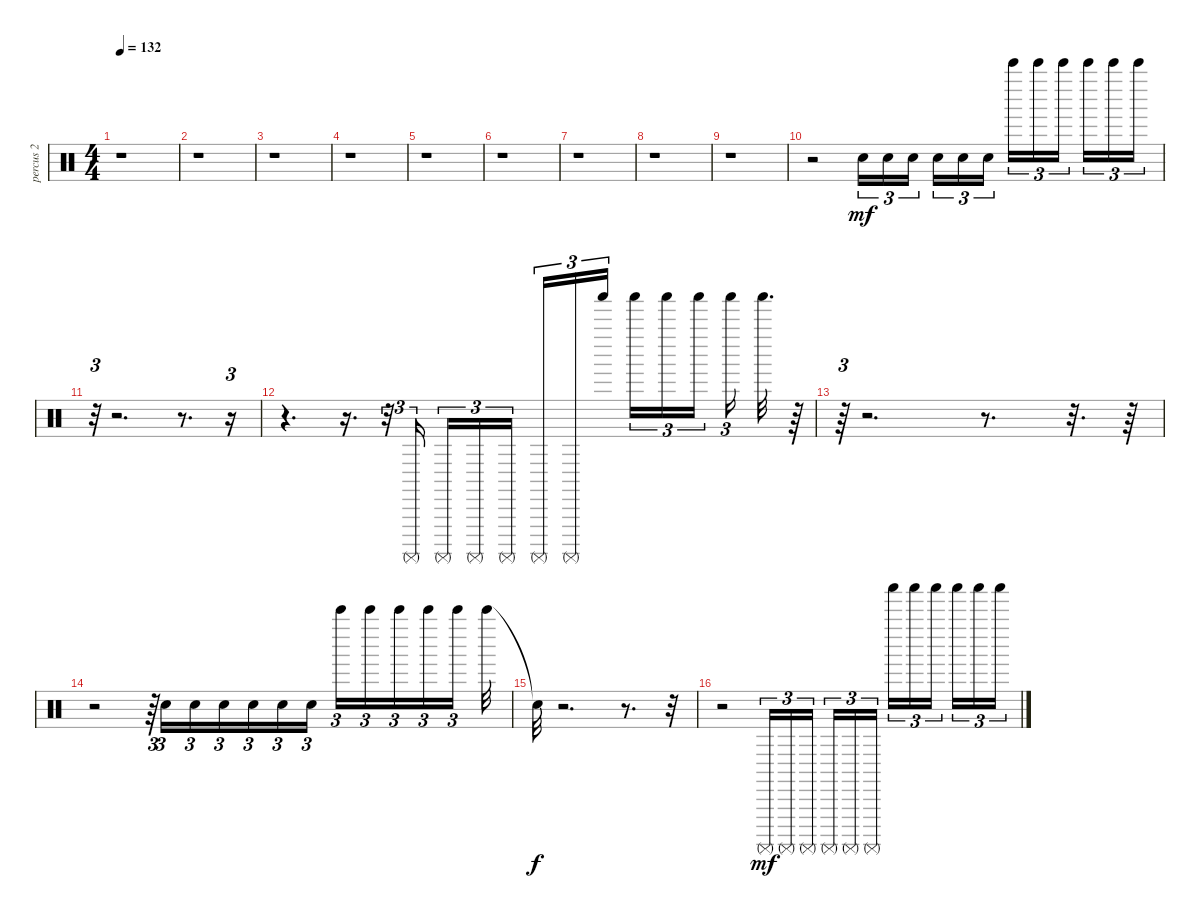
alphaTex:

\track ("percus 2" "percus 2") {instrument percussion}
\staff {score}
\articulation defaults
\ts (4 4)
\tempo 132
\clef neutral
\ks c
r.1{dy mf} |
r.1 |
r.1 |
r.1 |
r.1 |
r.1 |
r.1 |
r.1 |
r.1 |
r.2 "Snare (hit)".16{tu (3 2)} "Snare (hit)".16{tu (3 2)} "Snare (hit)".16{tu (3 2)} "Snare (hit)".16{tu (3 2)} "Snare (hit)".16{tu (3 2)} "Snare (hit)".16{tu (3 2)} "Bell Tree (hit)".16{tu (3 2)} "Bell Tree (hit)".16{tu (3 2)} "Bell Tree (hit)".16{tu (3 2)} "Bell Tree (hit)".16{tu (3 2)} "Bell Tree (hit)".16{tu (3 2)} "Bell Tree (hit)".16{tu (3 2)} |
r.32{tu (3 2)} r.2{d} r.8{d} r.16{tu (3 2)} |
r.4{d} r.16{d} r.32{tu (3 2)} "Surdo (mute)".16{tu (3 2)} "Surdo (mute)".16{tu (3 2)} "Surdo (mute)".16{tu (3 2)} "Surdo (mute)".16{tu (3 2)} "Surdo (mute)".16{tu (3 2)} "Surdo (mute)".16{tu (3 2)} "Shaker (hit)".16{tu (3 2)} "Shaker (hit)".16{tu (3 2)} "Shaker (hit)".16{tu (3 2)} "Shaker (hit)".16{tu (3 2)} "Shaker (hit)".16{tu (3 2)} "Shaker (hit)".32{d} r.64 |
r.64{tu (3 2)} r.2{d} r.8{d} r.32{d} r.64 |
r.2 r.64{tu (3 2)} "Snare (hit)".16{tu (3 2)} "Snare (hit)".16{tu (3 2)} "Snare (hit)".16{tu (3 2)} "Snare (hit)".16{tu (3 2)} "Snare (hit)".16{tu (3 2)} "Snare (hit)".16{tu (3 2)} "Bell Tree (hit)".16{tu (3 2)} "Bell Tree (hit)".16{tu (3 2)} "Bell Tree (hit)".16{tu (3 2)} "Bell Tree (hit)".16{tu (3 2)} "Bell Tree (hit)".16{tu (3 2)} "Bell Tree (hit)".32 |
"Snare (hit)"{t}.32{dy f} r.2{d} r.8{d} r.32 |
r.2 "Surdo (mute)".16{tu (3 2) dy mf} "Surdo (mute)".16{tu (3 2)} "Surdo (mute)".16{tu (3 2)} "Surdo (mute)".16{tu (3 2)} "Surdo (mute)".16{tu (3 2)} "Surdo (mute)".16{tu (3 2)} "Shaker (hit)".16{tu (3 2)} "Shaker (hit)".16{tu (3 2)} "Shaker (hit)".16{tu (3 2)} "Shaker (hit)".16{tu (3 2)} "Shaker (hit)".16{tu (3 2)} "Shaker (hit)".16{tu (3 2)}
